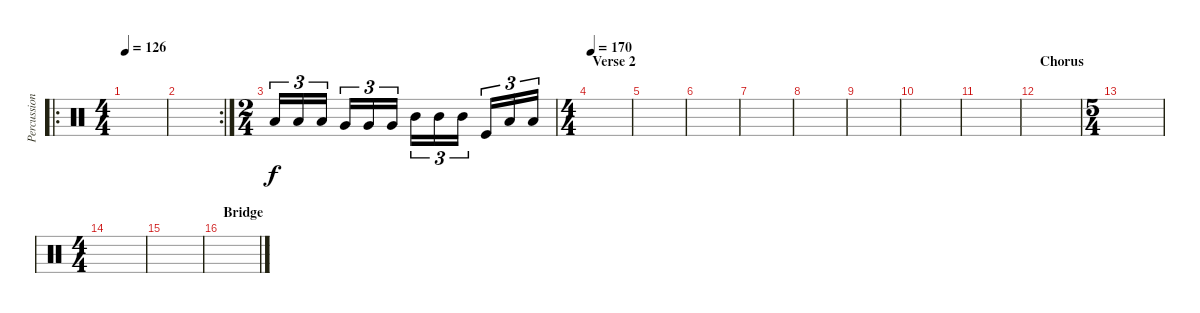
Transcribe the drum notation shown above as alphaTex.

\track ("Percussion" "Percussion") {instrument percussion}
\staff {score}
\articulation defaults
\ro
\ts (4 4)
\tempo 126
\clef neutral
\ks c
|
\rc 2
|
\ts (2 4)
"Low Tom (hit)".16{tu (3 2)} "Low Tom (hit)".16{tu (3 2)} "Low Tom (hit)".16{tu (3 2) beam splitsecondary} "Very Low Tom (hit)".16{tu (3 2)} "Very Low Tom (hit)".16{tu (3 2)} "Very Low Tom (hit)".16{tu (3 2)} "Mid Tom (hit)".16{tu (3 2)} "Mid Tom (hit)".16{tu (3 2)} "Mid Tom (hit)".16{tu (3 2) beam splitsecondary} "Kick (hit)".16{tu (3 2)} "Low Tom (hit)".16{tu (3 2)} "Low Tom (hit)".16{tu (3 2)} |
\ts (4 4)
\section ("" "Verse 2")
\tempo 170
|
|
|
|
|
|
|
|
\section ("" "Chorus")
|
\ts (5 4)
|
\ts (4 4)
|
|
\section ("" "Bridge")
